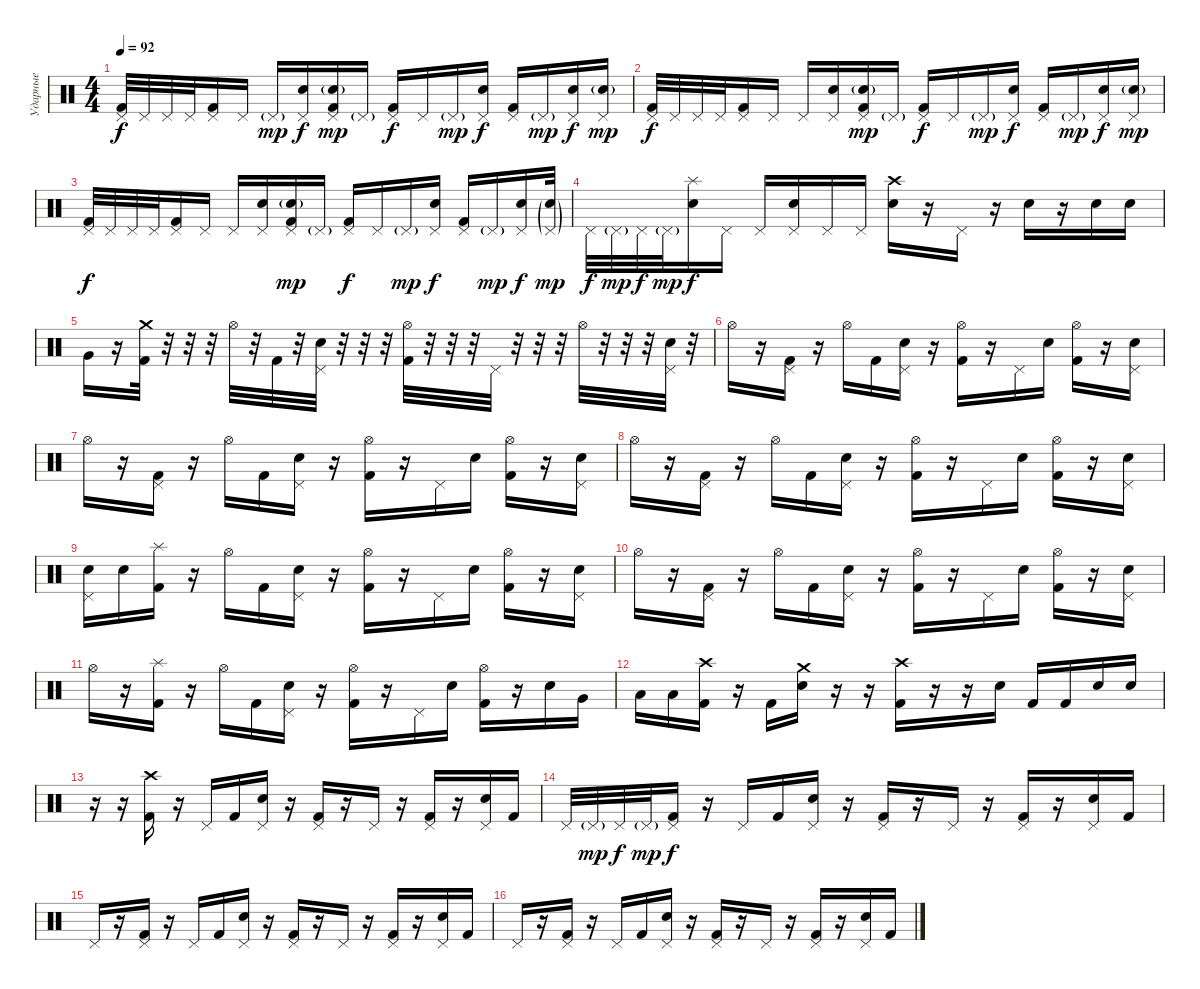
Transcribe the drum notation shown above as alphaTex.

\track ("Ударные" "Ударные") {instrument percussion}
\staff {score}
\articulation defaults
\ts (4 4)
\tempo 92
\clef neutral
\ks c
("Pedal Hi-Hat (hit)" "Kick (hit) 2").32{dy f} "Pedal Hi-Hat (hit)".32 "Pedal Hi-Hat (hit)".32 "Pedal Hi-Hat (hit)".32 ("Pedal Hi-Hat (hit)" "Kick (hit) 2").16 "Pedal Hi-Hat (hit)".16 "Pedal Hi-Hat (hit)"{g}.16{dy mp} ("Pedal Hi-Hat (hit)" "Electric Snare (hit)").16{dy f} ("Pedal Hi-Hat (hit)" "Electric Snare (hit)"{g} "Kick (hit) 2").16{dy mp} "Pedal Hi-Hat (hit)"{g}.16 ("Pedal Hi-Hat (hit)" "Kick (hit) 2").16{dy f} "Pedal Hi-Hat (hit)".16 "Pedal Hi-Hat (hit)"{g}.16{dy mp} ("Pedal Hi-Hat (hit)" "Electric Snare (hit)").16{dy f} ("Pedal Hi-Hat (hit)" "Kick (hit) 2").16 "Pedal Hi-Hat (hit)"{g}.16{dy mp} ("Pedal Hi-Hat (hit)" "Electric Snare (hit)").16{dy f} ("Pedal Hi-Hat (hit)" "Electric Snare (hit)"{g}).16{dy mp} |
("Pedal Hi-Hat (hit)" "Kick (hit) 2").32{dy f} "Pedal Hi-Hat (hit)".32 "Pedal Hi-Hat (hit)".32 "Pedal Hi-Hat (hit)".32 ("Pedal Hi-Hat (hit)" "Kick (hit) 2").16 "Pedal Hi-Hat (hit)".16 "Pedal Hi-Hat (hit)".16 ("Pedal Hi-Hat (hit)" "Electric Snare (hit)").16 ("Pedal Hi-Hat (hit)" "Electric Snare (hit)"{g} "Kick (hit) 2").16{dy mp} "Pedal Hi-Hat (hit)"{g}.16 ("Pedal Hi-Hat (hit)" "Kick (hit) 2").16{dy f} "Pedal Hi-Hat (hit)".16 "Pedal Hi-Hat (hit)"{g}.16{dy mp} ("Pedal Hi-Hat (hit)" "Electric Snare (hit)").16{dy f} ("Pedal Hi-Hat (hit)" "Kick (hit) 2").16 "Pedal Hi-Hat (hit)"{g}.16{dy mp} ("Pedal Hi-Hat (hit)" "Electric Snare (hit)").16{dy f} ("Pedal Hi-Hat (hit)" "Electric Snare (hit)"{g}).16{dy mp} |
("Pedal Hi-Hat (hit)" "Kick (hit) 2").32{dy f} "Pedal Hi-Hat (hit)".32 "Pedal Hi-Hat (hit)".32 "Pedal Hi-Hat (hit)".32 ("Pedal Hi-Hat (hit)" "Kick (hit) 2").16 "Pedal Hi-Hat (hit)".16 "Pedal Hi-Hat (hit)".16 ("Pedal Hi-Hat (hit)" "Electric Snare (hit)").16 ("Pedal Hi-Hat (hit)" "Electric Snare (hit)"{g} "Kick (hit) 2").16{dy mp} "Pedal Hi-Hat (hit)"{g}.16 ("Pedal Hi-Hat (hit)" "Kick (hit) 2").16{dy f} "Pedal Hi-Hat (hit)".16 "Pedal Hi-Hat (hit)"{g}.16{dy mp} ("Pedal Hi-Hat (hit)" "Electric Snare (hit)").16{dy f} ("Pedal Hi-Hat (hit)" "Kick (hit) 2").16 "Pedal Hi-Hat (hit)"{g}.16{dy mp} ("Pedal Hi-Hat (hit)" "Electric Snare (hit)").16{dy f} ("Pedal Hi-Hat (hit)"{g} "Electric Snare (hit)"{g}).32{dy mp} |
"Pedal Hi-Hat (hit)".32{dy f} "Pedal Hi-Hat (hit)"{g}.32{dy mp} "Pedal Hi-Hat (hit)".32{dy f} "Pedal Hi-Hat (hit)"{g}.32{dy mp} ("Splash (hit)" "Electric Snare (hit)").16{dy f} "Pedal Hi-Hat (hit)".16 "Pedal Hi-Hat (hit)".16 ("Pedal Hi-Hat (hit)" "Electric Snare (hit)").16 "Pedal Hi-Hat (hit)".16 "Pedal Hi-Hat (hit)".16 ("Crash high (hit)" "Electric Snare (hit)").16 r.16 "Pedal Hi-Hat (hit)".16 r.16 "Electric Snare (hit)".16 r.16 "Electric Snare (hit)".16 "Electric Snare (hit)".16 |
"Very Low Tom (hit)".16 r.16 ("Crash medium (hit)" "Kick (hit) 2").32 r.32 r.32 r.32 "Hi-Hat (open)".32 r.32 "Kick (hit) 2".32 r.32 ("Pedal Hi-Hat (hit)" "Electric Snare (hit)").32 r.32 r.32 r.32 ("Hi-Hat (open)" "Kick (hit) 2").32 r.32 r.32 r.32 "Pedal Hi-Hat (hit)".32 r.32 r.32 r.32 "Hi-Hat (open)".32 r.32 r.32 r.32 ("Pedal Hi-Hat (hit)" "Electric Snare (hit)").32 r.32 |
"Hi-Hat (open)".16 r.16 ("Pedal Hi-Hat (hit)" "Kick (hit) 2").16 r.16 "Hi-Hat (open)".16 "Kick (hit) 2".16 ("Pedal Hi-Hat (hit)" "Electric Snare (hit)").16 r.16 ("Hi-Hat (open)" "Kick (hit) 2").16 r.16 "Pedal Hi-Hat (hit)".16 "Electric Snare (hit)".16 ("Hi-Hat (open)" "Kick (hit) 2").16 r.16 ("Pedal Hi-Hat (hit)" "Electric Snare (hit)").16 |
"Hi-Hat (open)".16 r.16 ("Pedal Hi-Hat (hit)" "Kick (hit) 2").16 r.16 "Hi-Hat (open)".16 "Kick (hit) 2".16 ("Pedal Hi-Hat (hit)" "Electric Snare (hit)").16 r.16 ("Hi-Hat (open)" "Kick (hit) 2").16 r.16 "Pedal Hi-Hat (hit)".16 "Electric Snare (hit)".16 ("Hi-Hat (open)" "Kick (hit) 2").16 r.16 ("Pedal Hi-Hat (hit)" "Electric Snare (hit)").16 |
"Hi-Hat (open)".16 r.16 ("Pedal Hi-Hat (hit)" "Kick (hit) 2").16 r.16 "Hi-Hat (open)".16 "Kick (hit) 2".16 ("Pedal Hi-Hat (hit)" "Electric Snare (hit)").16 r.16 ("Hi-Hat (open)" "Kick (hit) 2").16 r.16 "Pedal Hi-Hat (hit)".16 "Electric Snare (hit)".16 ("Hi-Hat (open)" "Kick (hit) 2").16 r.16 ("Pedal Hi-Hat (hit)" "Electric Snare (hit)").16 |
("Pedal Hi-Hat (hit)" "Electric Snare (hit)").16 "Electric Snare (hit)".16 ("Splash (hit)" "Kick (hit) 2").16 r.16 "Hi-Hat (open)".16 "Kick (hit) 2".16 ("Pedal Hi-Hat (hit)" "Electric Snare (hit)").16 r.16 ("Hi-Hat (open)" "Kick (hit) 2").16 r.16 "Pedal Hi-Hat (hit)".16 "Electric Snare (hit)".16 ("Hi-Hat (open)" "Kick (hit) 2").16 r.16 ("Pedal Hi-Hat (hit)" "Electric Snare (hit)").16 |
"Hi-Hat (open)".16 r.16 ("Pedal Hi-Hat (hit)" "Kick (hit) 2").16 r.16 "Hi-Hat (open)".16 "Kick (hit) 2".16 ("Pedal Hi-Hat (hit)" "Electric Snare (hit)").16 r.16 ("Hi-Hat (open)" "Kick (hit) 2").16 r.16 "Pedal Hi-Hat (hit)".16 "Electric Snare (hit)".16 ("Hi-Hat (open)" "Kick (hit) 2").16 r.16 ("Pedal Hi-Hat (hit)" "Electric Snare (hit)").16 |
"Hi-Hat (open)".16 r.16 ("Splash (hit)" "Kick (hit) 2").16 r.16 "Hi-Hat (open)".16 "Kick (hit) 2".16 ("Pedal Hi-Hat (hit)" "Electric Snare (hit)").16 r.16 ("Hi-Hat (open)" "Kick (hit) 2").16 r.16 "Pedal Hi-Hat (hit)".16 "Electric Snare (hit)".16 ("Hi-Hat (open)" "Kick (hit) 2").16 r.16 "Electric Snare (hit)".16 "Very Low Tom (hit)".16 |
"Low Tom (hit)".16 "Low Tom (hit)".16 ("Crash high (hit)" "Kick (hit) 2").16 r.16 "Kick (hit) 2".16 ("Crash medium (hit)" "Electric Snare (hit)").16 r.16 r.16 ("Crash high (hit)" "Kick (hit) 2").16 r.16 r.16 "Electric Snare (hit)".16 "Kick (hit) 2".16 "Kick (hit) 2".16 "Electric Snare (hit)".16 "Electric Snare (hit)".16 |
r.16 r.16 ("Crash high (hit)" "Kick (hit) 2").16 r.16 "Pedal Hi-Hat (hit)".16 "Kick (hit) 2".16 ("Pedal Hi-Hat (hit)" "Electric Snare (hit)").16 r.16 ("Pedal Hi-Hat (hit)" "Kick (hit) 2").16 r.16 "Pedal Hi-Hat (hit)".16 r.16 ("Pedal Hi-Hat (hit)" "Kick (hit) 2").16 r.16 ("Pedal Hi-Hat (hit)" "Electric Snare (hit)").16 "Kick (hit) 2".16 |
"Pedal Hi-Hat (hit)".32 "Pedal Hi-Hat (hit)"{g}.32{dy mp} "Pedal Hi-Hat (hit)".32{dy f} "Pedal Hi-Hat (hit)"{g}.32{dy mp} ("Pedal Hi-Hat (hit)" "Kick (hit) 2").16{dy f} r.16 "Pedal Hi-Hat (hit)".16 "Kick (hit) 2".16 ("Pedal Hi-Hat (hit)" "Electric Snare (hit)").16 r.16 ("Pedal Hi-Hat (hit)" "Kick (hit) 2").16 r.16 "Pedal Hi-Hat (hit)".16 r.16 ("Pedal Hi-Hat (hit)" "Kick (hit) 2").16 r.16 ("Pedal Hi-Hat (hit)" "Electric Snare (hit)").16 "Kick (hit) 2".16 |
"Pedal Hi-Hat (hit)".16 r.16 ("Pedal Hi-Hat (hit)" "Kick (hit) 2").16 r.16 "Pedal Hi-Hat (hit)".16 "Kick (hit) 2".16 ("Pedal Hi-Hat (hit)" "Electric Snare (hit)").16 r.16 ("Pedal Hi-Hat (hit)" "Kick (hit) 2").16 r.16 "Pedal Hi-Hat (hit)".16 r.16 ("Pedal Hi-Hat (hit)" "Kick (hit) 2").16 r.16 ("Pedal Hi-Hat (hit)" "Electric Snare (hit)").16 "Kick (hit) 2".16 |
"Pedal Hi-Hat (hit)".16 r.16 ("Pedal Hi-Hat (hit)" "Kick (hit) 2").16 r.16 "Pedal Hi-Hat (hit)".16 "Kick (hit) 2".16 ("Pedal Hi-Hat (hit)" "Electric Snare (hit)").16 r.16 ("Pedal Hi-Hat (hit)" "Kick (hit) 2").16 r.16 "Pedal Hi-Hat (hit)".16 r.16 ("Pedal Hi-Hat (hit)" "Kick (hit) 2").16 r.16 ("Pedal Hi-Hat (hit)" "Electric Snare (hit)").16 "Kick (hit) 2".16
